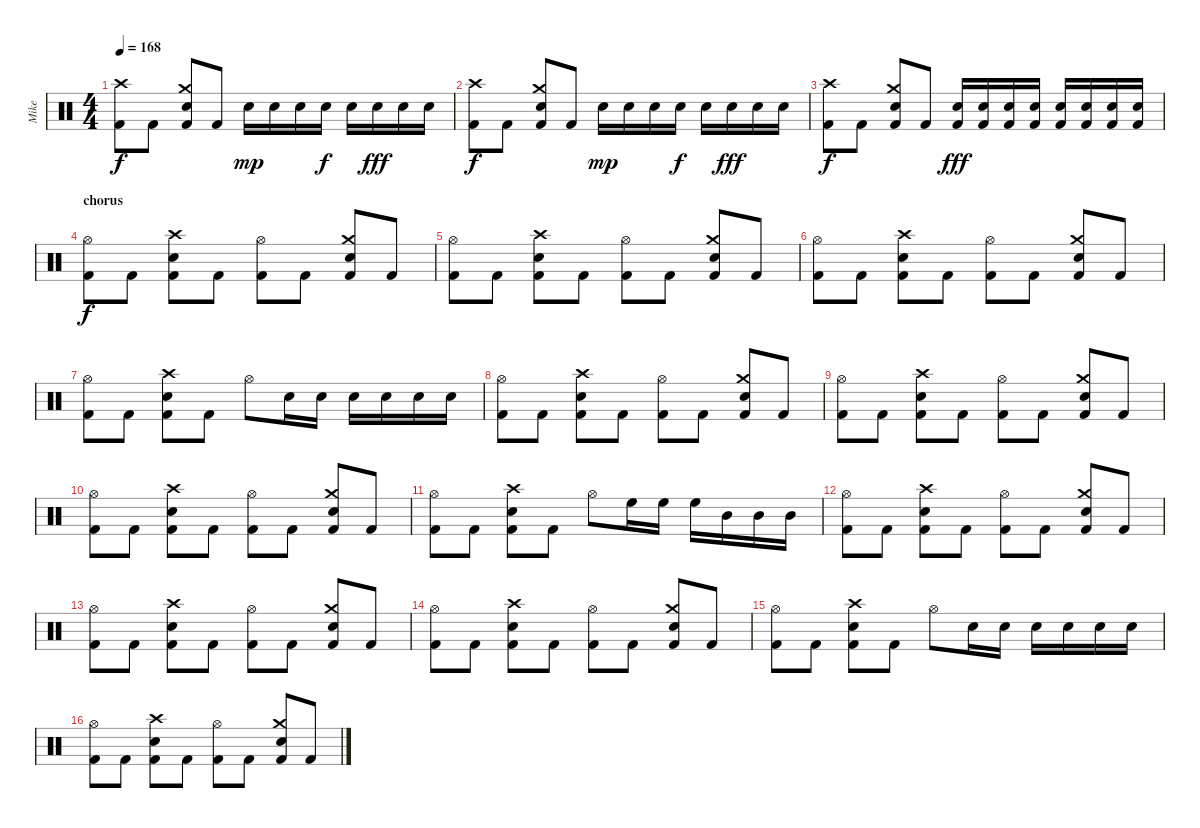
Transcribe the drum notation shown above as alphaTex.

\track ("Mike" "Mike") {instrument percussion}
\staff {score}
\articulation defaults
\ts (4 4)
\tempo 168
\clef neutral
\ks c
("Crash high (hit)" "Kick (hit) 2").8{dy f} "Kick (hit) 2".8 ("Crash medium (hit)" "Snare (hit) 2" "Kick (hit) 2").8 "Kick (hit) 2".8 "Snare (hit) 2".16{dy mp} "Snare (hit) 2".16 "Snare (hit) 2".16 "Snare (hit) 2".16{dy f} "Snare (hit) 2".16 "Snare (hit) 2".16{dy fff} "Snare (hit) 2".16 "Snare (hit) 2".16 |
("Crash high (hit)" "Kick (hit) 2").8{dy f} "Kick (hit) 2".8 ("Crash medium (hit)" "Snare (hit) 2" "Kick (hit) 2").8 "Kick (hit) 2".8 "Snare (hit) 2".16{dy mp} "Snare (hit) 2".16 "Snare (hit) 2".16 "Snare (hit) 2".16{dy f} "Snare (hit) 2".16 "Snare (hit) 2".16{dy fff} "Snare (hit) 2".16 "Snare (hit) 2".16 |
("Crash high (hit)" "Kick (hit) 2").8{dy f} "Kick (hit) 2".8 ("Crash medium (hit)" "Snare (hit) 2" "Kick (hit) 2").8 "Kick (hit) 2".8 ("Snare (hit) 2" "Kick (hit) 2").16{dy fff} ("Snare (hit) 2" "Kick (hit) 2").16 ("Snare (hit) 2" "Kick (hit) 2").16 ("Snare (hit) 2" "Kick (hit) 2").16 ("Snare (hit) 2" "Kick (hit) 2").16 ("Snare (hit) 2" "Kick (hit) 2").16 ("Snare (hit) 2" "Kick (hit) 2").16 ("Snare (hit) 2" "Kick (hit) 2").16 |
\section ("" "chorus")
("Hi-Hat (open)" "Kick (hit) 2").8{dy f} "Kick (hit) 2".8 ("Crash high (hit)" "Snare (hit) 2" "Kick (hit) 2").8 "Kick (hit) 2".8 ("Hi-Hat (open)" "Kick (hit) 2").8 "Kick (hit) 2".8 ("Crash medium (hit)" "Snare (hit) 2" "Kick (hit) 2").8 "Kick (hit) 2".8 |
("Hi-Hat (open)" "Kick (hit) 2").8 "Kick (hit) 2".8 ("Crash high (hit)" "Snare (hit) 2" "Kick (hit) 2").8 "Kick (hit) 2".8 ("Hi-Hat (open)" "Kick (hit) 2").8 "Kick (hit) 2".8 ("Crash medium (hit)" "Snare (hit) 2" "Kick (hit) 2").8 "Kick (hit) 2".8 |
("Hi-Hat (open)" "Kick (hit) 2").8 "Kick (hit) 2".8 ("Crash high (hit)" "Snare (hit) 2" "Kick (hit) 2").8 "Kick (hit) 2".8 ("Hi-Hat (open)" "Kick (hit) 2").8 "Kick (hit) 2".8 ("Crash medium (hit)" "Snare (hit) 2" "Kick (hit) 2").8 "Kick (hit) 2".8 |
("Hi-Hat (open)" "Kick (hit) 2").8 "Kick (hit) 2".8 ("Crash high (hit)" "Snare (hit) 2" "Kick (hit) 2").8 "Kick (hit) 2".8 "Hi-Hat (open)".8 "Snare (hit) 2".16 "Snare (hit) 2".16 "Snare (hit) 2".16 "Snare (hit) 2".16 "Snare (hit) 2".16 "Snare (hit) 2".16 |
("Hi-Hat (open)" "Kick (hit) 2").8 "Kick (hit) 2".8 ("Crash high (hit)" "Snare (hit) 2" "Kick (hit) 2").8 "Kick (hit) 2".8 ("Hi-Hat (open)" "Kick (hit) 2").8 "Kick (hit) 2".8 ("Crash medium (hit)" "Snare (hit) 2" "Kick (hit) 2").8 "Kick (hit) 2".8 |
("Hi-Hat (open)" "Kick (hit) 2").8 "Kick (hit) 2".8 ("Crash high (hit)" "Snare (hit) 2" "Kick (hit) 2").8 "Kick (hit) 2".8 ("Hi-Hat (open)" "Kick (hit) 2").8 "Kick (hit) 2".8 ("Crash medium (hit)" "Snare (hit) 2" "Kick (hit) 2").8 "Kick (hit) 2".8 |
("Hi-Hat (open)" "Kick (hit) 2").8 "Kick (hit) 2".8 ("Crash high (hit)" "Snare (hit) 2" "Kick (hit) 2").8 "Kick (hit) 2".8 ("Hi-Hat (open)" "Kick (hit) 2").8 "Kick (hit) 2".8 ("Crash medium (hit)" "Snare (hit) 2" "Kick (hit) 2").8 "Kick (hit) 2".8 |
("Hi-Hat (open)" "Kick (hit) 2").8 "Kick (hit) 2".8 ("Crash high (hit)" "Snare (hit) 2" "Kick (hit) 2").8 "Kick (hit) 2".8 "Hi-Hat (open)".8 "High Floor Tom (hit)".16 "High Floor Tom (hit)".16 "High Floor Tom (hit)".16 "Mid Tom (hit)".16 "Mid Tom (hit)".16 "Mid Tom (hit)".16 |
("Hi-Hat (open)" "Kick (hit) 2").8 "Kick (hit) 2".8 ("Crash high (hit)" "Snare (hit) 2" "Kick (hit) 2").8 "Kick (hit) 2".8 ("Hi-Hat (open)" "Kick (hit) 2").8 "Kick (hit) 2".8 ("Crash medium (hit)" "Snare (hit) 2" "Kick (hit) 2").8 "Kick (hit) 2".8 |
("Hi-Hat (open)" "Kick (hit) 2").8 "Kick (hit) 2".8 ("Crash high (hit)" "Snare (hit) 2" "Kick (hit) 2").8 "Kick (hit) 2".8 ("Hi-Hat (open)" "Kick (hit) 2").8 "Kick (hit) 2".8 ("Crash medium (hit)" "Snare (hit) 2" "Kick (hit) 2").8 "Kick (hit) 2".8 |
("Hi-Hat (open)" "Kick (hit) 2").8 "Kick (hit) 2".8 ("Crash high (hit)" "Snare (hit) 2" "Kick (hit) 2").8 "Kick (hit) 2".8 ("Hi-Hat (open)" "Kick (hit) 2").8 "Kick (hit) 2".8 ("Crash medium (hit)" "Snare (hit) 2" "Kick (hit) 2").8 "Kick (hit) 2".8 |
("Hi-Hat (open)" "Kick (hit) 2").8 "Kick (hit) 2".8 ("Crash high (hit)" "Snare (hit) 2" "Kick (hit) 2").8 "Kick (hit) 2".8 "Hi-Hat (open)".8 "Snare (hit) 2".16 "Snare (hit) 2".16 "Snare (hit) 2".16 "Snare (hit) 2".16 "Snare (hit) 2".16 "Snare (hit) 2".16 |
("Hi-Hat (open)" "Kick (hit) 2").8 "Kick (hit) 2".8 ("Crash high (hit)" "Snare (hit) 2" "Kick (hit) 2").8 "Kick (hit) 2".8 ("Hi-Hat (open)" "Kick (hit) 2").8 "Kick (hit) 2".8 ("Crash medium (hit)" "Snare (hit) 2" "Kick (hit) 2").8 "Kick (hit) 2".8
